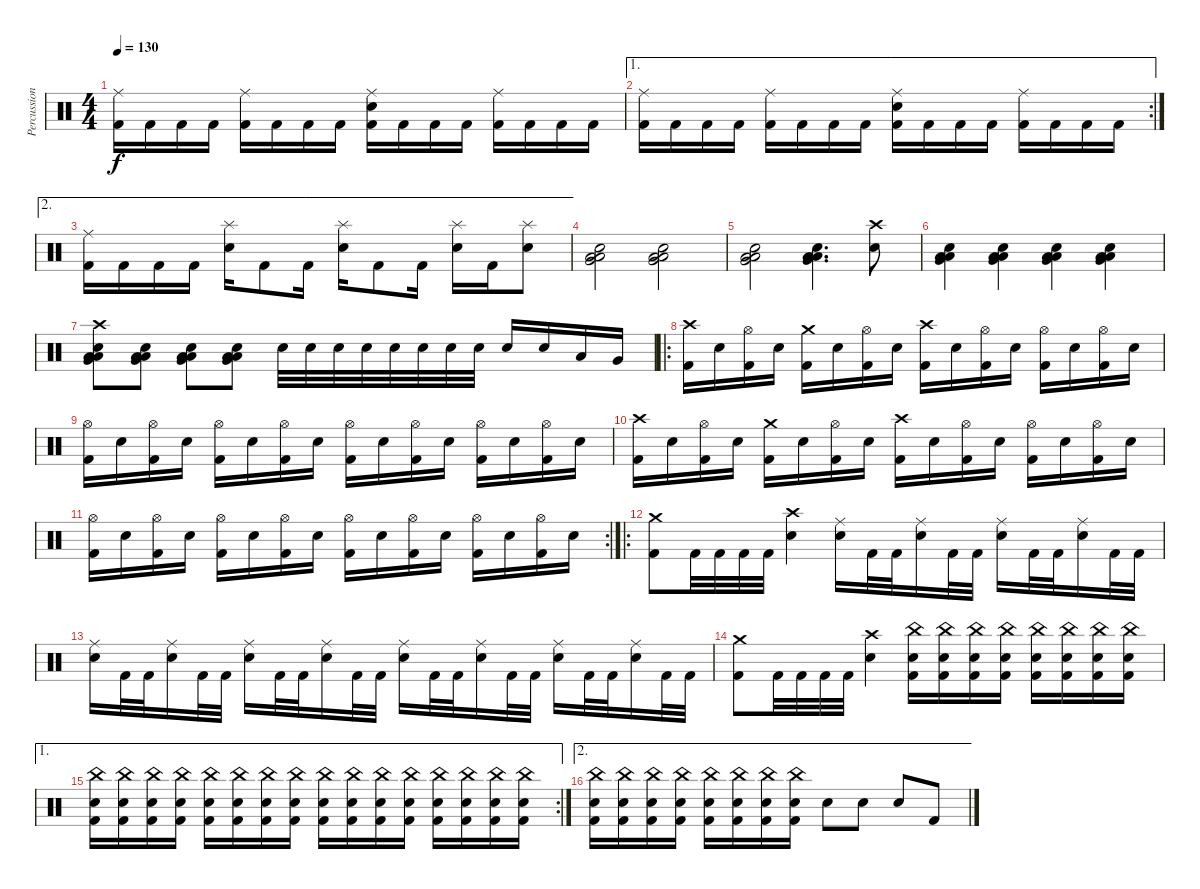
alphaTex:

\track ("Percussion" "Percussion") {instrument percussion}
\staff {score}
\articulation defaults
\ts (4 4)
\tempo 130
\clef neutral
\ks c
("Ride (middle)" "Kick (hit) 2").16{dy f} "Kick (hit) 2".16 "Kick (hit) 2".16 "Kick (hit) 2".16 ("Ride (middle)" "Kick (hit) 2").16 "Kick (hit) 2".16 "Kick (hit) 2".16 "Kick (hit) 2".16 ("Ride (middle)" "Electric Snare (hit)" "Kick (hit) 2").16 "Kick (hit) 2".16 "Kick (hit) 2".16 "Kick (hit) 2".16 ("Ride (middle)" "Kick (hit) 2").16 "Kick (hit) 2".16 "Kick (hit) 2".16 "Kick (hit) 2".16 |
\ae 1
\rc 2
("Ride (middle)" "Kick (hit) 2").16 "Kick (hit) 2".16 "Kick (hit) 2".16 "Kick (hit) 2".16 ("Ride (middle)" "Kick (hit) 2").16 "Kick (hit) 2".16 "Kick (hit) 2".16 "Kick (hit) 2".16 ("Ride (middle)" "Electric Snare (hit)" "Kick (hit) 2").16 "Kick (hit) 2".16 "Kick (hit) 2".16 "Kick (hit) 2".16 ("Ride (middle)" "Kick (hit) 2").16 "Kick (hit) 2".16 "Kick (hit) 2".16 "Kick (hit) 2".16 |
\ae 2
("Ride (middle)" "Kick (hit) 2").16 "Kick (hit) 2".16 "Kick (hit) 2".16 "Kick (hit) 2".16 ("Splash (hit)" "Electric Snare (hit)").16 "Kick (hit) 2".8 "Kick (hit) 2".16 ("Splash (hit)" "Electric Snare (hit)").16 "Kick (hit) 2".8 "Kick (hit) 2".16 ("Splash (hit)" "Electric Snare (hit)").16 "Kick (hit) 2".16 ("Splash (hit)" "Electric Snare (hit)").8 |
("Low Tom (hit)" "Very Low Tom (hit)" "Low Floor Tom (hit)" "Electric Snare (hit)").2 ("Low Tom (hit)" "Very Low Tom (hit)" "Low Floor Tom (hit)" "Electric Snare (hit)").2 |
("Low Tom (hit)" "Very Low Tom (hit)" "Low Floor Tom (hit)" "Electric Snare (hit)").2 ("Low Tom (hit)" "Very Low Tom (hit)" "Low Floor Tom (hit)" "Electric Snare (hit)").4{d} ("Crash high (hit)" "Electric Snare (hit)").8 |
("Low Tom (hit)" "Very Low Tom (hit)" "Low Floor Tom (hit)" "Electric Snare (hit)").4 ("Low Tom (hit)" "Very Low Tom (hit)" "Low Floor Tom (hit)" "Electric Snare (hit)").4 ("Low Tom (hit)" "Very Low Tom (hit)" "Low Floor Tom (hit)" "Electric Snare (hit)").4 ("Low Tom (hit)" "Very Low Tom (hit)" "Low Floor Tom (hit)" "Electric Snare (hit)").4 |
("Crash high (hit)" "Low Tom (hit)" "Very Low Tom (hit)" "Low Floor Tom (hit)" "Electric Snare (hit)").8 ("Low Tom (hit)" "Very Low Tom (hit)" "Low Floor Tom (hit)" "Electric Snare (hit)").8 ("Low Tom (hit)" "Very Low Tom (hit)" "Low Floor Tom (hit)" "Electric Snare (hit)").8 ("Low Tom (hit)" "Very Low Tom (hit)" "Low Floor Tom (hit)" "Electric Snare (hit)").8 "Electric Snare (hit)".32 "Electric Snare (hit)".32 "Electric Snare (hit)".32 "Electric Snare (hit)".32 "Electric Snare (hit)".32 "Electric Snare (hit)".32 "Electric Snare (hit)".32 "Electric Snare (hit)".32 "Electric Snare (hit)".16 "Electric Snare (hit)".16 "Low Tom (hit)".16 "Very Low Tom (hit)".16 |
\ro
("Crash high (hit)" "Kick (hit) 2").16 "Electric Snare (hit)".16 ("Hi-Hat (open)" "Kick (hit) 2").16 "Electric Snare (hit)".16 ("Crash medium (hit)" "Kick (hit) 2").16 "Electric Snare (hit)".16 ("Hi-Hat (open)" "Kick (hit) 2").16 "Electric Snare (hit)".16 ("Crash high (hit)" "Kick (hit) 2").16 "Electric Snare (hit)".16 ("Hi-Hat (open)" "Kick (hit) 2").16 "Electric Snare (hit)".16 ("Hi-Hat (open)" "Kick (hit) 2").16 "Electric Snare (hit)".16 ("Hi-Hat (open)" "Kick (hit) 2").16 "Electric Snare (hit)".16 |
("Hi-Hat (open)" "Kick (hit) 2").16 "Electric Snare (hit)".16 ("Hi-Hat (open)" "Kick (hit) 2").16 "Electric Snare (hit)".16 ("Hi-Hat (open)" "Kick (hit) 2").16 "Electric Snare (hit)".16 ("Hi-Hat (open)" "Kick (hit) 2").16 "Electric Snare (hit)".16 ("Hi-Hat (open)" "Kick (hit) 2").16 "Electric Snare (hit)".16 ("Hi-Hat (open)" "Kick (hit) 2").16 "Electric Snare (hit)".16 ("Hi-Hat (open)" "Kick (hit) 2").16 "Electric Snare (hit)".16 ("Hi-Hat (open)" "Kick (hit) 2").16 "Electric Snare (hit)".16 |
("Crash high (hit)" "Kick (hit) 2").16 "Electric Snare (hit)".16 ("Hi-Hat (open)" "Kick (hit) 2").16 "Electric Snare (hit)".16 ("Crash medium (hit)" "Kick (hit) 2").16 "Electric Snare (hit)".16 ("Hi-Hat (open)" "Kick (hit) 2").16 "Electric Snare (hit)".16 ("Crash high (hit)" "Kick (hit) 2").16 "Electric Snare (hit)".16 ("Hi-Hat (open)" "Kick (hit) 2").16 "Electric Snare (hit)".16 ("Hi-Hat (open)" "Kick (hit) 2").16 "Electric Snare (hit)".16 ("Hi-Hat (open)" "Kick (hit) 2").16 "Electric Snare (hit)".16 |
\rc 2
("Hi-Hat (open)" "Kick (hit) 2").16 "Electric Snare (hit)".16 ("Hi-Hat (open)" "Kick (hit) 2").16 "Electric Snare (hit)".16 ("Hi-Hat (open)" "Kick (hit) 2").16 "Electric Snare (hit)".16 ("Hi-Hat (open)" "Kick (hit) 2").16 "Electric Snare (hit)".16 ("Hi-Hat (open)" "Kick (hit) 2").16 "Electric Snare (hit)".16 ("Hi-Hat (open)" "Kick (hit) 2").16 "Electric Snare (hit)".16 ("Hi-Hat (open)" "Kick (hit) 2").16 "Electric Snare (hit)".16 ("Hi-Hat (open)" "Kick (hit) 2").16 "Electric Snare (hit)".16 |
\ro
("Crash medium (hit)" "Kick (hit) 2").8 "Kick (hit) 2".32 "Kick (hit) 2".32 "Kick (hit) 2".32 "Kick (hit) 2".32 ("Crash high (hit)" "Electric Snare (hit)").4 ("Ride (middle)" "Electric Snare (hit)").16 "Kick (hit) 2".32 "Kick (hit) 2".32 ("Ride (middle)" "Electric Snare (hit)").16 "Kick (hit) 2".32 "Kick (hit) 2".32 ("Ride (middle)" "Electric Snare (hit)").16 "Kick (hit) 2".32 "Kick (hit) 2".32 ("Ride (middle)" "Electric Snare (hit)").16 "Kick (hit) 2".32 "Kick (hit) 2".32 |
("Ride (middle)" "Electric Snare (hit)").16 "Kick (hit) 2".32 "Kick (hit) 2".32 ("Ride (middle)" "Electric Snare (hit)").16 "Kick (hit) 2".32 "Kick (hit) 2".32 ("Ride (middle)" "Electric Snare (hit)").16 "Kick (hit) 2".32 "Kick (hit) 2".32 ("Ride (middle)" "Electric Snare (hit)").16 "Kick (hit) 2".32 "Kick (hit) 2".32 ("Ride (middle)" "Electric Snare (hit)").16 "Kick (hit) 2".32 "Kick (hit) 2".32 ("Ride (middle)" "Electric Snare (hit)").16 "Kick (hit) 2".32 "Kick (hit) 2".32 ("Ride (middle)" "Electric Snare (hit)").16 "Kick (hit) 2".32 "Kick (hit) 2".32 ("Ride (middle)" "Electric Snare (hit)").16 "Kick (hit) 2".32 "Kick (hit) 2".32 |
("Crash medium (hit)" "Kick (hit) 2").8 "Kick (hit) 2".32 "Kick (hit) 2".32 "Kick (hit) 2".32 "Kick (hit) 2".32 ("Crash high (hit)" "Electric Snare (hit)").4 ("China (hit)" "Electric Snare (hit)" "Kick (hit) 2").16 ("China (hit)" "Electric Snare (hit)" "Kick (hit) 2").16 ("China (hit)" "Electric Snare (hit)" "Kick (hit) 2").16 ("China (hit)" "Electric Snare (hit)" "Kick (hit) 2").16 ("China (hit)" "Electric Snare (hit)" "Kick (hit) 2").16 ("China (hit)" "Electric Snare (hit)" "Kick (hit) 2").16 ("China (hit)" "Electric Snare (hit)" "Kick (hit) 2").16 ("China (hit)" "Electric Snare (hit)" "Kick (hit) 2").16 |
\ae 1
\rc 2
("China (hit)" "Electric Snare (hit)" "Kick (hit) 2").16 ("China (hit)" "Electric Snare (hit)" "Kick (hit) 2").16 ("China (hit)" "Electric Snare (hit)" "Kick (hit) 2").16 ("China (hit)" "Electric Snare (hit)" "Kick (hit) 2").16 ("China (hit)" "Electric Snare (hit)" "Kick (hit) 2").16 ("China (hit)" "Electric Snare (hit)" "Kick (hit) 2").16 ("China (hit)" "Electric Snare (hit)" "Kick (hit) 2").16 ("China (hit)" "Electric Snare (hit)" "Kick (hit) 2").16 ("China (hit)" "Electric Snare (hit)" "Kick (hit) 2").16 ("China (hit)" "Electric Snare (hit)" "Kick (hit) 2").16 ("China (hit)" "Electric Snare (hit)" "Kick (hit) 2").16 ("China (hit)" "Electric Snare (hit)" "Kick (hit) 2").16 ("China (hit)" "Electric Snare (hit)" "Kick (hit) 2").16 ("China (hit)" "Electric Snare (hit)" "Kick (hit) 2").16 ("China (hit)" "Electric Snare (hit)" "Kick (hit) 2").16 ("China (hit)" "Electric Snare (hit)" "Kick (hit) 2").16 |
\ae 2
("China (hit)" "Electric Snare (hit)" "Kick (hit) 2").16 ("China (hit)" "Electric Snare (hit)" "Kick (hit) 2").16 ("China (hit)" "Electric Snare (hit)" "Kick (hit) 2").16 ("China (hit)" "Electric Snare (hit)" "Kick (hit) 2").16 ("China (hit)" "Electric Snare (hit)" "Kick (hit) 2").16 ("China (hit)" "Electric Snare (hit)" "Kick (hit) 2").16 ("China (hit)" "Electric Snare (hit)" "Kick (hit) 2").16 ("China (hit)" "Electric Snare (hit)" "Kick (hit) 2").16 "Electric Snare (hit)".8 "Electric Snare (hit)".8 "Electric Snare (hit)".8 "Kick (hit) 2".8
